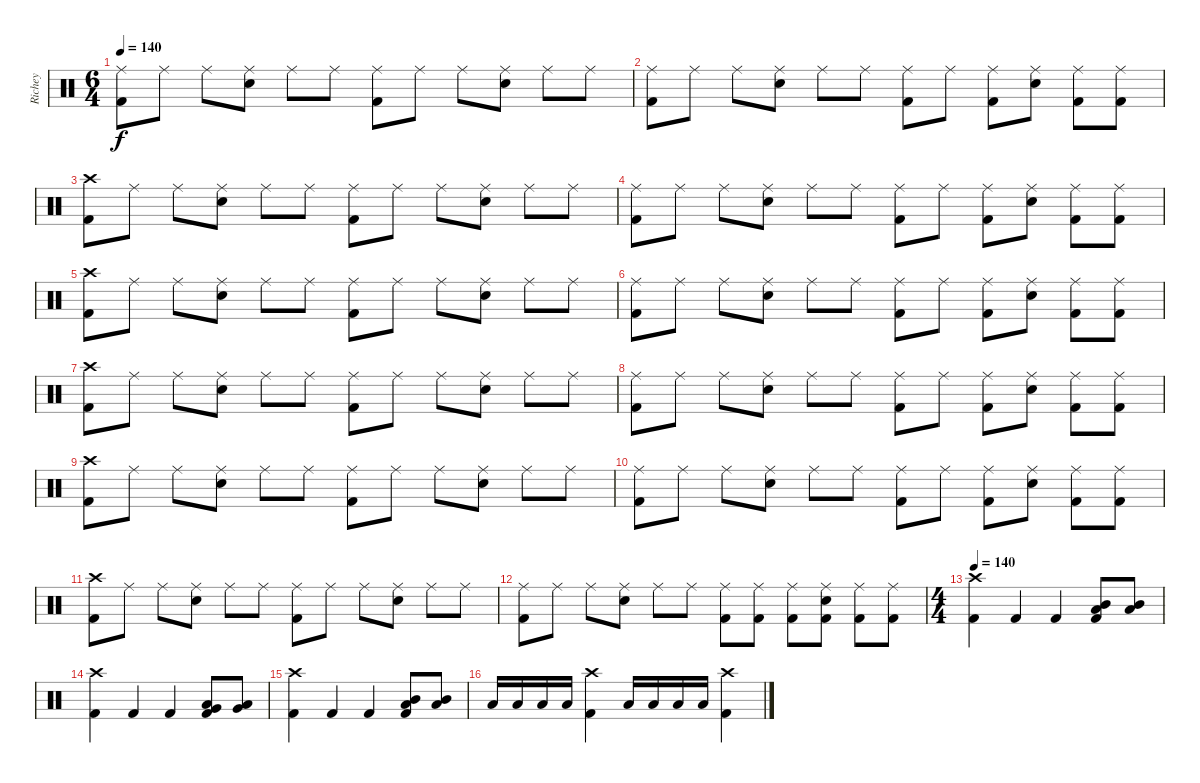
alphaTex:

\track ("Richey" "Richey") {instrument percussion}
\staff {score}
\articulation defaults
\ts (6 4)
\tempo 140
\tempo 210
\tempo 140
\clef neutral
\ks c
("Ride (middle)" "Kick (hit) 2").8{dy f} "Ride (middle)".8 "Ride (middle)".8 ("Ride (middle)" "Snare (hit) 2").8 "Ride (middle)".8 "Ride (middle)".8 ("Ride (middle)" "Kick (hit) 2").8 "Ride (middle)".8 "Ride (middle)".8 ("Ride (middle)" "Snare (hit) 2").8 "Ride (middle)".8 "Ride (middle)".8 |
("Ride (middle)" "Kick (hit) 2").8 "Ride (middle)".8 "Ride (middle)".8 ("Ride (middle)" "Snare (hit) 2").8 "Ride (middle)".8 "Ride (middle)".8 ("Ride (middle)" "Kick (hit) 2").8 "Ride (middle)".8 ("Ride (middle)" "Kick (hit) 2").8 ("Ride (middle)" "Snare (hit) 2").8 ("Ride (middle)" "Kick (hit) 2").8 ("Ride (middle)" "Kick (hit) 2").8 |
("Crash high (hit)" "Kick (hit) 2").8 "Ride (middle)".8 "Ride (middle)".8 ("Ride (middle)" "Snare (hit) 2").8 "Ride (middle)".8 "Ride (middle)".8 ("Ride (middle)" "Kick (hit) 2").8 "Ride (middle)".8 "Ride (middle)".8 ("Ride (middle)" "Snare (hit) 2").8 "Ride (middle)".8 "Ride (middle)".8 |
("Ride (middle)" "Kick (hit) 2").8 "Ride (middle)".8 "Ride (middle)".8 ("Ride (middle)" "Snare (hit) 2").8 "Ride (middle)".8 "Ride (middle)".8 ("Ride (middle)" "Kick (hit) 2").8 "Ride (middle)".8 ("Ride (middle)" "Kick (hit) 2").8 ("Ride (middle)" "Snare (hit) 2").8 ("Ride (middle)" "Kick (hit) 2").8 ("Ride (middle)" "Kick (hit) 2").8 |
("Crash high (hit)" "Kick (hit) 2").8 "Ride (middle)".8 "Ride (middle)".8 ("Ride (middle)" "Snare (hit) 2").8 "Ride (middle)".8 "Ride (middle)".8 ("Ride (middle)" "Kick (hit) 2").8 "Ride (middle)".8 "Ride (middle)".8 ("Ride (middle)" "Snare (hit) 2").8 "Ride (middle)".8 "Ride (middle)".8 |
("Ride (middle)" "Kick (hit) 2").8 "Ride (middle)".8 "Ride (middle)".8 ("Ride (middle)" "Snare (hit) 2").8 "Ride (middle)".8 "Ride (middle)".8 ("Ride (middle)" "Kick (hit) 2").8 "Ride (middle)".8 ("Ride (middle)" "Kick (hit) 2").8 ("Ride (middle)" "Snare (hit) 2").8 ("Ride (middle)" "Kick (hit) 2").8 ("Ride (middle)" "Kick (hit) 2").8 |
("Crash high (hit)" "Kick (hit) 2").8 "Ride (middle)".8 "Ride (middle)".8 ("Ride (middle)" "Snare (hit) 2").8 "Ride (middle)".8 "Ride (middle)".8 ("Ride (middle)" "Kick (hit) 2").8 "Ride (middle)".8 "Ride (middle)".8 ("Ride (middle)" "Snare (hit) 2").8 "Ride (middle)".8 "Ride (middle)".8 |
("Ride (middle)" "Kick (hit) 2").8 "Ride (middle)".8 "Ride (middle)".8 ("Ride (middle)" "Snare (hit) 2").8 "Ride (middle)".8 "Ride (middle)".8 ("Ride (middle)" "Kick (hit) 2").8 "Ride (middle)".8 ("Ride (middle)" "Kick (hit) 2").8 ("Ride (middle)" "Snare (hit) 2").8 ("Ride (middle)" "Kick (hit) 2").8 ("Ride (middle)" "Kick (hit) 2").8 |
("Crash high (hit)" "Kick (hit) 2").8 "Ride (middle)".8 "Ride (middle)".8 ("Ride (middle)" "Snare (hit) 2").8 "Ride (middle)".8 "Ride (middle)".8 ("Ride (middle)" "Kick (hit) 2").8 "Ride (middle)".8 "Ride (middle)".8 ("Ride (middle)" "Snare (hit) 2").8 "Ride (middle)".8 "Ride (middle)".8 |
("Ride (middle)" "Kick (hit) 2").8 "Ride (middle)".8 "Ride (middle)".8 ("Ride (middle)" "Snare (hit) 2").8 "Ride (middle)".8 "Ride (middle)".8 ("Ride (middle)" "Kick (hit) 2").8 "Ride (middle)".8 ("Ride (middle)" "Kick (hit) 2").8 ("Ride (middle)" "Snare (hit) 2").8 ("Ride (middle)" "Kick (hit) 2").8 ("Ride (middle)" "Kick (hit) 2").8 |
("Crash high (hit)" "Kick (hit) 2").8 "Ride (middle)".8 "Ride (middle)".8 ("Ride (middle)" "Snare (hit) 2").8 "Ride (middle)".8 "Ride (middle)".8 ("Ride (middle)" "Kick (hit) 2").8 "Ride (middle)".8 "Ride (middle)".8 ("Ride (middle)" "Snare (hit) 2").8 "Ride (middle)".8 "Ride (middle)".8 |
("Ride (middle)" "Kick (hit) 2").8 "Ride (middle)".8 "Ride (middle)".8 ("Ride (middle)" "Snare (hit) 2").8 "Ride (middle)".8 "Ride (middle)".8 ("Ride (middle)" "Kick (hit) 2").8 ("Ride (middle)" "Kick (hit) 2").8 ("Ride (middle)" "Kick (hit) 2").8 ("Ride (middle)" "Snare (hit) 2" "Kick (hit) 2").8 ("Ride (middle)" "Kick (hit) 2").8 ("Ride (middle)" "Kick (hit) 2").8 |
\ts (4 4)
\tempo 140
("Crash high (hit)" "Kick (hit) 2").4 "Kick (hit) 2".4 "Kick (hit) 2".4 ("Mid Tom (hit)" "Low Tom (hit)" "Kick (hit) 2").8 ("Mid Tom (hit)" "Low Tom (hit)").8 |
("Crash high (hit)" "Kick (hit) 2").4 "Kick (hit) 2".4 "Kick (hit) 2".4 ("Very Low Tom (hit)" "Low Tom (hit)" "Kick (hit) 2").8 ("Very Low Tom (hit)" "Low Tom (hit)").8 |
("Crash high (hit)" "Kick (hit) 2").4 "Kick (hit) 2".4 "Kick (hit) 2".4 ("Mid Tom (hit)" "Low Tom (hit)" "Kick (hit) 2").8 ("Mid Tom (hit)" "Low Tom (hit)").8 |
"Low Tom (hit)".16 "Low Tom (hit)".16 "Low Tom (hit)".16 "Low Tom (hit)".16 ("Crash high (hit)" "Kick (hit) 2").4 "Low Tom (hit)".16 "Low Tom (hit)".16 "Low Tom (hit)".16 "Low Tom (hit)".16 ("Crash high (hit)" "Kick (hit) 2").4
